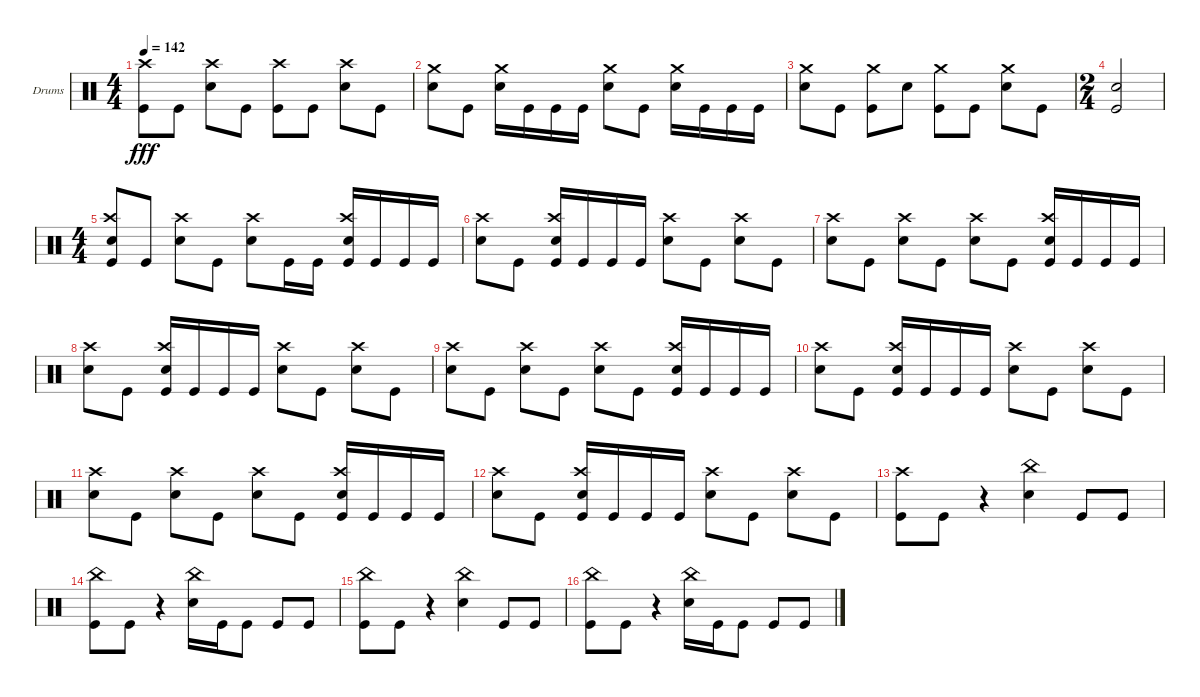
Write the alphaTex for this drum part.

\defaultSystemsLayout 4
\bracketExtendMode groupsimilarinstruments
\firstSystemTrackNameOrientation horizontal
\otherSystemsTrackNameOrientation horizontal
\track ("Drumkit" "Drums") {instrument percussion}
\staff {score}
\articulation defaults
\ts (4 4)
\tempo 142
\clef neutral
\scale
0.333333
\ks c
("Kick (hit)" "Crash high (hit)").8{dy fff} "Kick (hit)".8 ("Snare (hit) 2" "Crash high (hit)").8 "Kick (hit)".8 ("Kick (hit)" "Crash high (hit)").8 "Kick (hit)".8 ("Snare (hit) 2" "Crash high (hit)").8 "Kick (hit)".8 |
\scale
0.333333 ("Snare (hit) 2" "Crash medium (hit)").8 "Kick (hit)".8 ("Snare (hit) 2" "Crash medium (hit)").16 "Kick (hit)".16 "Kick (hit)".16 "Kick (hit)".16 ("Snare (hit) 2" "Crash medium (hit)").8 "Kick (hit)".8 ("Snare (hit) 2" "Crash medium (hit)").16 "Kick (hit)".16 "Kick (hit)".16 "Kick (hit)".16 |
\scale
0.333333 ("Snare (hit) 2" "Crash medium (hit)").8 "Kick (hit)".8 ("Kick (hit)" "Crash medium (hit)").8 "Snare (hit) 2".8 ("Kick (hit)" "Crash medium (hit)").8 "Kick (hit)".8 ("Snare (hit) 2" "Crash medium (hit)").8 "Kick (hit)".8 |
\ts (2 4)
\scale
0.390805 ("Snare (hit) 2" "Kick (hit)").2 |
\ts (4 4)
\scale
0.390805 ("Snare (hit) 2" "Kick (hit)" "Crash high (hit)").8 "Kick (hit)".8 ("Snare (hit) 2" "Crash high (hit)").8 "Kick (hit)".8 ("Snare (hit) 2" "Crash high (hit)").8 "Kick (hit)".16 "Kick (hit)".16 ("Snare (hit) 2" "Kick (hit)" "Crash high (hit)").16 "Kick (hit)".16 "Kick (hit)".16 "Kick (hit)".16 |
\scale
0.218391 ("Snare (hit) 2" "Crash high (hit)").8 "Kick (hit)".8 ("Snare (hit) 2" "Kick (hit)" "Crash high (hit)").16 "Kick (hit)".16 "Kick (hit)".16 "Kick (hit)".16 ("Snare (hit) 2" "Crash high (hit)").8 "Kick (hit)".8 ("Snare (hit) 2" "Crash high (hit)").8 "Kick (hit)".8 |
\scale
0.333333 ("Snare (hit) 2" "Crash high (hit)").8 "Kick (hit)".8 ("Snare (hit) 2" "Crash high (hit)").8 "Kick (hit)".8 ("Snare (hit) 2" "Crash high (hit)").8 "Kick (hit)".8 ("Snare (hit) 2" "Kick (hit)" "Crash high (hit)").16 "Kick (hit)".16 "Kick (hit)".16 "Kick (hit)".16 |
\scale
0.333333 ("Snare (hit) 2" "Crash high (hit)").8 "Kick (hit)".8 ("Snare (hit) 2" "Kick (hit)" "Crash high (hit)").16 "Kick (hit)".16 "Kick (hit)".16 "Kick (hit)".16 ("Snare (hit) 2" "Crash high (hit)").8 "Kick (hit)".8 ("Snare (hit) 2" "Crash high (hit)").8 "Kick (hit)".8 |
\scale
0.333333 ("Snare (hit) 2" "Crash high (hit)").8 "Kick (hit)".8 ("Snare (hit) 2" "Crash high (hit)").8 "Kick (hit)".8 ("Snare (hit) 2" "Crash high (hit)").8 "Kick (hit)".8 ("Snare (hit) 2" "Kick (hit)" "Crash high (hit)").16 "Kick (hit)".16 "Kick (hit)".16 "Kick (hit)".16 |
\scale
0.333333 ("Snare (hit) 2" "Crash high (hit)").8 "Kick (hit)".8 ("Snare (hit) 2" "Kick (hit)" "Crash high (hit)").16 "Kick (hit)".16 "Kick (hit)".16 "Kick (hit)".16 ("Snare (hit) 2" "Crash high (hit)").8 "Kick (hit)".8 ("Snare (hit) 2" "Crash high (hit)").8 "Kick (hit)".8 |
\scale
0.333333 ("Snare (hit) 2" "Crash high (hit)").8 "Kick (hit)".8 ("Snare (hit) 2" "Crash high (hit)").8 "Kick (hit)".8 ("Snare (hit) 2" "Crash high (hit)").8 "Kick (hit)".8 ("Snare (hit) 2" "Kick (hit)" "Crash high (hit)").16 "Kick (hit)".16 "Kick (hit)".16 "Kick (hit)".16 |
\scale
0.333333 ("Snare (hit) 2" "Crash high (hit)").8 "Kick (hit)".8 ("Snare (hit) 2" "Kick (hit)" "Crash high (hit)").16 "Kick (hit)".16 "Kick (hit)".16 "Kick (hit)".16 ("Snare (hit) 2" "Crash high (hit)").8 "Kick (hit)".8 ("Snare (hit) 2" "Crash high (hit)").8 "Kick (hit)".8 |
\scale
0.333333 ("Kick (hit)" "Crash high (hit)").8 "Kick (hit)".8 r.4 ("Snare (hit) 2" "China (hit)").4 "Kick (hit)".8 "Kick (hit)".8 |
\scale
0.333333 ("Kick (hit)" "China (hit)").8 "Kick (hit)".8 r.4 ("Snare (hit) 2" "China (hit)").16 "Kick (hit)".16 "Kick (hit)".8 "Kick (hit)".8 "Kick (hit)".8 |
\scale
0.333333 ("Kick (hit)" "China (hit)").8 "Kick (hit)".8 r.4 ("Snare (hit) 2" "China (hit)").4 "Kick (hit)".8 "Kick (hit)".8 |
\scale
0.333333 ("Kick (hit)" "China (hit)").8 "Kick (hit)".8 r.4 ("Snare (hit) 2" "China (hit)").16 "Kick (hit)".16 "Kick (hit)".8 "Kick (hit)".8 "Kick (hit)".8
